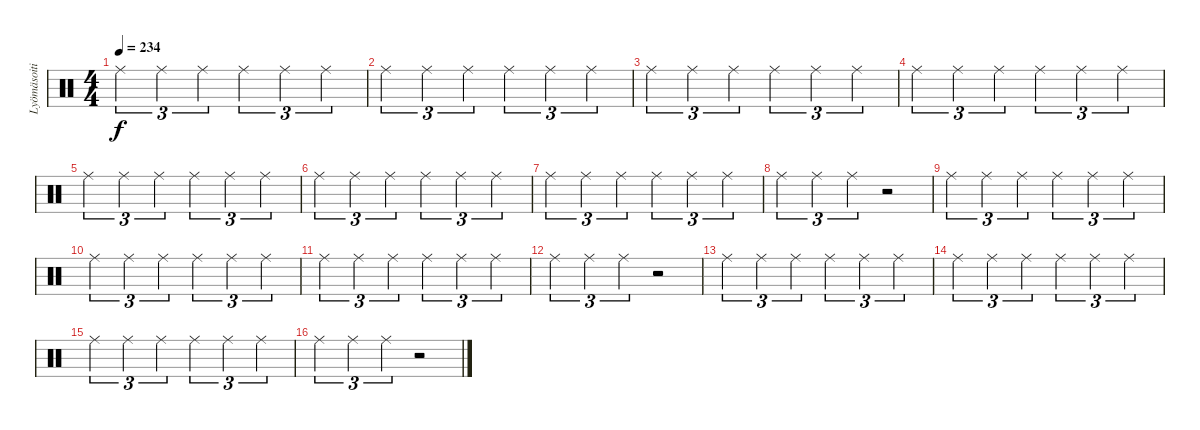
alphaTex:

\track ("Lyömäsoitin" "Lyömäsoiti") {instrument percussion}
\staff {score}
\articulation defaults
\ts (4 4)
\tempo 234
\clef neutral
\ks c "Ride (middle)".4{tu (3 2) dy f} "Ride (middle)".4{tu (3 2)} "Ride (middle)".4{tu (3 2)} "Ride (middle)".4{tu (3 2)} "Ride (middle)".4{tu (3 2)} "Ride (middle)".4{tu (3 2)}
|
"Ride (middle)".4{tu (3 2)} "Ride (middle)".4{tu (3 2)} "Ride (middle)".4{tu (3 2)} "Ride (middle)".4{tu (3 2)} "Ride (middle)".4{tu (3 2)} "Ride (middle)".4{tu (3 2)} |
"Ride (middle)".4{tu (3 2)} "Ride (middle)".4{tu (3 2)} "Ride (middle)".4{tu (3 2)} "Ride (middle)".4{tu (3 2)} "Ride (middle)".4{tu (3 2)} "Ride (middle)".4{tu (3 2)} |
"Ride (middle)".4{tu (3 2)} "Ride (middle)".4{tu (3 2)} "Ride (middle)".4{tu (3 2)} "Ride (middle)".4{tu (3 2)} "Ride (middle)".4{tu (3 2)} "Ride (middle)".4{tu (3 2)} |
"Ride (middle)".4{tu (3 2)} "Ride (middle)".4{tu (3 2)} "Ride (middle)".4{tu (3 2)} "Ride (middle)".4{tu (3 2)} "Ride (middle)".4{tu (3 2)} "Ride (middle)".4{tu (3 2)} |
"Ride (middle)".4{tu (3 2)} "Ride (middle)".4{tu (3 2)} "Ride (middle)".4{tu (3 2)} "Ride (middle)".4{tu (3 2)} "Ride (middle)".4{tu (3 2)} "Ride (middle)".4{tu (3 2)} |
"Ride (middle)".4{tu (3 2)} "Ride (middle)".4{tu (3 2)} "Ride (middle)".4{tu (3 2)} "Ride (middle)".4{tu (3 2)} "Ride (middle)".4{tu (3 2)} "Ride (middle)".4{tu (3 2)} |
"Ride (middle)".4{tu (3 2)} "Ride (middle)".4{tu (3 2)} "Ride (middle)".4{tu (3 2)} r.2 |
"Ride (middle)".4{tu (3 2)} "Ride (middle)".4{tu (3 2)} "Ride (middle)".4{tu (3 2)} "Ride (middle)".4{tu (3 2)} "Ride (middle)".4{tu (3 2)} "Ride (middle)".4{tu (3 2)} |
"Ride (middle)".4{tu (3 2)} "Ride (middle)".4{tu (3 2)} "Ride (middle)".4{tu (3 2)} "Ride (middle)".4{tu (3 2)} "Ride (middle)".4{tu (3 2)} "Ride (middle)".4{tu (3 2)} |
"Ride (middle)".4{tu (3 2)} "Ride (middle)".4{tu (3 2)} "Ride (middle)".4{tu (3 2)} "Ride (middle)".4{tu (3 2)} "Ride (middle)".4{tu (3 2)} "Ride (middle)".4{tu (3 2)} |
"Ride (middle)".4{tu (3 2)} "Ride (middle)".4{tu (3 2)} "Ride (middle)".4{tu (3 2)} r.2 |
"Ride (middle)".4{tu (3 2)} "Ride (middle)".4{tu (3 2)} "Ride (middle)".4{tu (3 2)} "Ride (middle)".4{tu (3 2)} "Ride (middle)".4{tu (3 2)} "Ride (middle)".4{tu (3 2)} |
"Ride (middle)".4{tu (3 2)} "Ride (middle)".4{tu (3 2)} "Ride (middle)".4{tu (3 2)} "Ride (middle)".4{tu (3 2)} "Ride (middle)".4{tu (3 2)} "Ride (middle)".4{tu (3 2)} |
"Ride (middle)".4{tu (3 2)} "Ride (middle)".4{tu (3 2)} "Ride (middle)".4{tu (3 2)} "Ride (middle)".4{tu (3 2)} "Ride (middle)".4{tu (3 2)} "Ride (middle)".4{tu (3 2)} |
"Ride (middle)".4{tu (3 2)} "Ride (middle)".4{tu (3 2)} "Ride (middle)".4{tu (3 2)} r.2
